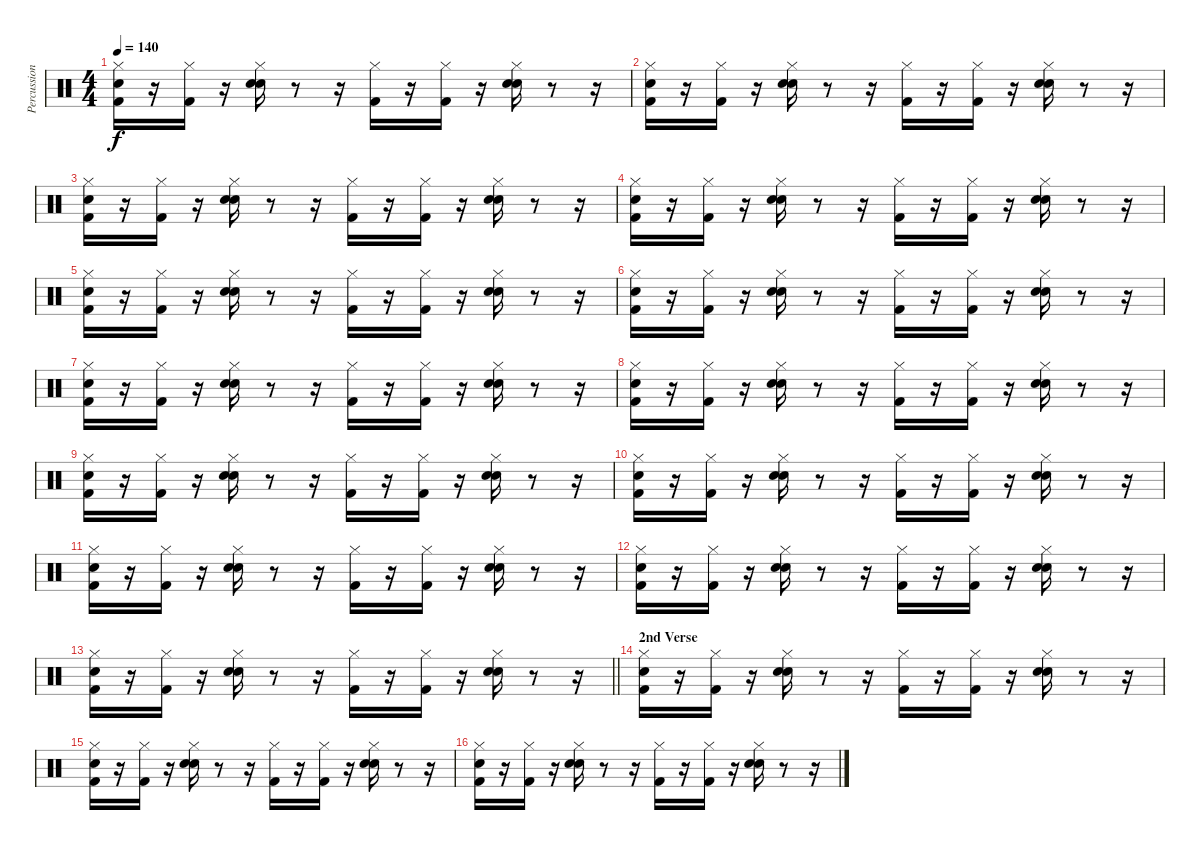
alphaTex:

\track ("Percussion" "Percussion") {instrument percussion}
\staff {score}
\articulation defaults
\ts (4 4)
\tempo 140
\clef neutral
\ks c
("Snare (hit)" "Kick (hit) 2" "Hi-Hat (closed)").16{dy f} r.16 ("Kick (hit) 2" "Hi-Hat (closed)").16 r.16 ("Hand Clap (hit)" "Hi-Hat (closed)" "Snare (hit) 2").16 r.8 r.16 ("Hi-Hat (closed)" "Kick (hit) 2").16 r.16 ("Hi-Hat (closed)" "Kick (hit) 2").16 r.16 ("Snare (hit) 2" "Hand Clap (hit)" "Hi-Hat (closed)").16 r.8 r.16 |
("Snare (hit)" "Kick (hit) 2" "Hi-Hat (closed)").16 r.16 ("Kick (hit) 2" "Hi-Hat (closed)").16 r.16 ("Hand Clap (hit)" "Hi-Hat (closed)" "Snare (hit) 2").16 r.8 r.16 ("Hi-Hat (closed)" "Kick (hit) 2").16 r.16 ("Hi-Hat (closed)" "Kick (hit) 2").16 r.16 ("Snare (hit) 2" "Hand Clap (hit)" "Hi-Hat (closed)").16 r.8 r.16 |
("Snare (hit)" "Kick (hit) 2" "Hi-Hat (closed)").16 r.16 ("Kick (hit) 2" "Hi-Hat (closed)").16 r.16 ("Hand Clap (hit)" "Hi-Hat (closed)" "Snare (hit) 2").16 r.8 r.16 ("Hi-Hat (closed)" "Kick (hit) 2").16 r.16 ("Hi-Hat (closed)" "Kick (hit) 2").16 r.16 ("Snare (hit) 2" "Hand Clap (hit)" "Hi-Hat (closed)").16 r.8 r.16 |
("Snare (hit)" "Kick (hit) 2" "Hi-Hat (closed)").16 r.16 ("Kick (hit) 2" "Hi-Hat (closed)").16 r.16 ("Hand Clap (hit)" "Hi-Hat (closed)" "Snare (hit) 2").16 r.8 r.16 ("Hi-Hat (closed)" "Kick (hit) 2").16 r.16 ("Hi-Hat (closed)" "Kick (hit) 2").16 r.16 ("Snare (hit) 2" "Hand Clap (hit)" "Hi-Hat (closed)").16 r.8 r.16 |
("Snare (hit)" "Kick (hit) 2" "Hi-Hat (closed)").16 r.16 ("Kick (hit) 2" "Hi-Hat (closed)").16 r.16 ("Hand Clap (hit)" "Hi-Hat (closed)" "Snare (hit) 2").16 r.8 r.16 ("Hi-Hat (closed)" "Kick (hit) 2").16 r.16 ("Hi-Hat (closed)" "Kick (hit) 2").16 r.16 ("Snare (hit) 2" "Hand Clap (hit)" "Hi-Hat (closed)").16 r.8 r.16 |
("Snare (hit)" "Kick (hit) 2" "Hi-Hat (closed)").16 r.16 ("Kick (hit) 2" "Hi-Hat (closed)").16 r.16 ("Hand Clap (hit)" "Hi-Hat (closed)" "Snare (hit) 2").16 r.8 r.16 ("Hi-Hat (closed)" "Kick (hit) 2").16 r.16 ("Hi-Hat (closed)" "Kick (hit) 2").16 r.16 ("Snare (hit) 2" "Hand Clap (hit)" "Hi-Hat (closed)").16 r.8 r.16 |
("Snare (hit)" "Kick (hit) 2" "Hi-Hat (closed)").16 r.16 ("Kick (hit) 2" "Hi-Hat (closed)").16 r.16 ("Hand Clap (hit)" "Hi-Hat (closed)" "Snare (hit) 2").16 r.8 r.16 ("Hi-Hat (closed)" "Kick (hit) 2").16 r.16 ("Hi-Hat (closed)" "Kick (hit) 2").16 r.16 ("Snare (hit) 2" "Hand Clap (hit)" "Hi-Hat (closed)").16 r.8 r.16 |
("Snare (hit)" "Kick (hit) 2" "Hi-Hat (closed)").16 r.16 ("Kick (hit) 2" "Hi-Hat (closed)").16 r.16 ("Hand Clap (hit)" "Hi-Hat (closed)" "Snare (hit) 2").16 r.8 r.16 ("Hi-Hat (closed)" "Kick (hit) 2").16 r.16 ("Hi-Hat (closed)" "Kick (hit) 2").16 r.16 ("Snare (hit) 2" "Hand Clap (hit)" "Hi-Hat (closed)").16 r.8 r.16 |
("Snare (hit)" "Kick (hit) 2" "Hi-Hat (closed)").16 r.16 ("Kick (hit) 2" "Hi-Hat (closed)").16 r.16 ("Hand Clap (hit)" "Hi-Hat (closed)" "Snare (hit) 2").16 r.8 r.16 ("Hi-Hat (closed)" "Kick (hit) 2").16 r.16 ("Hi-Hat (closed)" "Kick (hit) 2").16 r.16 ("Snare (hit) 2" "Hand Clap (hit)" "Hi-Hat (closed)").16 r.8 r.16 |
("Snare (hit)" "Kick (hit) 2" "Hi-Hat (closed)").16 r.16 ("Kick (hit) 2" "Hi-Hat (closed)").16 r.16 ("Hand Clap (hit)" "Hi-Hat (closed)" "Snare (hit) 2").16 r.8 r.16 ("Hi-Hat (closed)" "Kick (hit) 2").16 r.16 ("Hi-Hat (closed)" "Kick (hit) 2").16 r.16 ("Snare (hit) 2" "Hand Clap (hit)" "Hi-Hat (closed)").16 r.8 r.16 |
("Snare (hit)" "Kick (hit) 2" "Hi-Hat (closed)").16 r.16 ("Kick (hit) 2" "Hi-Hat (closed)").16 r.16 ("Hand Clap (hit)" "Hi-Hat (closed)" "Snare (hit) 2").16 r.8 r.16 ("Hi-Hat (closed)" "Kick (hit) 2").16 r.16 ("Hi-Hat (closed)" "Kick (hit) 2").16 r.16 ("Snare (hit) 2" "Hand Clap (hit)" "Hi-Hat (closed)").16 r.8 r.16 |
("Snare (hit)" "Kick (hit) 2" "Hi-Hat (closed)").16 r.16 ("Kick (hit) 2" "Hi-Hat (closed)").16 r.16 ("Hand Clap (hit)" "Hi-Hat (closed)" "Snare (hit) 2").16 r.8 r.16 ("Hi-Hat (closed)" "Kick (hit) 2").16 r.16 ("Hi-Hat (closed)" "Kick (hit) 2").16 r.16 ("Snare (hit) 2" "Hand Clap (hit)" "Hi-Hat (closed)").16 r.8 r.16 |
\barLineRight lightlight
("Snare (hit)" "Kick (hit) 2" "Hi-Hat (closed)").16 r.16 ("Kick (hit) 2" "Hi-Hat (closed)").16 r.16 ("Hand Clap (hit)" "Hi-Hat (closed)" "Snare (hit) 2").16 r.8 r.16 ("Hi-Hat (closed)" "Kick (hit) 2").16 r.16 ("Hi-Hat (closed)" "Kick (hit) 2").16 r.16 ("Snare (hit) 2" "Hand Clap (hit)" "Hi-Hat (closed)").16 r.8 r.16 |
\section ("" "2nd Verse")
("Snare (hit)" "Kick (hit) 2" "Hi-Hat (closed)").16 r.16 ("Kick (hit) 2" "Hi-Hat (closed)").16 r.16 ("Hand Clap (hit)" "Hi-Hat (closed)" "Snare (hit) 2").16 r.8 r.16 ("Hi-Hat (closed)" "Kick (hit) 2").16 r.16 ("Hi-Hat (closed)" "Kick (hit) 2").16 r.16 ("Snare (hit) 2" "Hand Clap (hit)" "Hi-Hat (closed)").16 r.8 r.16 |
("Snare (hit)" "Kick (hit) 2" "Hi-Hat (closed)").16 r.16 ("Kick (hit) 2" "Hi-Hat (closed)").16 r.16 ("Hand Clap (hit)" "Hi-Hat (closed)" "Snare (hit) 2").16 r.8 r.16 ("Hi-Hat (closed)" "Kick (hit) 2").16 r.16 ("Hi-Hat (closed)" "Kick (hit) 2").16 r.16 ("Snare (hit) 2" "Hand Clap (hit)" "Hi-Hat (closed)").16 r.8 r.16 |
("Snare (hit)" "Kick (hit) 2" "Hi-Hat (closed)").16 r.16 ("Kick (hit) 2" "Hi-Hat (closed)").16 r.16 ("Hand Clap (hit)" "Hi-Hat (closed)" "Snare (hit) 2").16 r.8 r.16 ("Hi-Hat (closed)" "Kick (hit) 2").16 r.16 ("Hi-Hat (closed)" "Kick (hit) 2").16 r.16 ("Snare (hit) 2" "Hand Clap (hit)" "Hi-Hat (closed)").16 r.8 r.16
